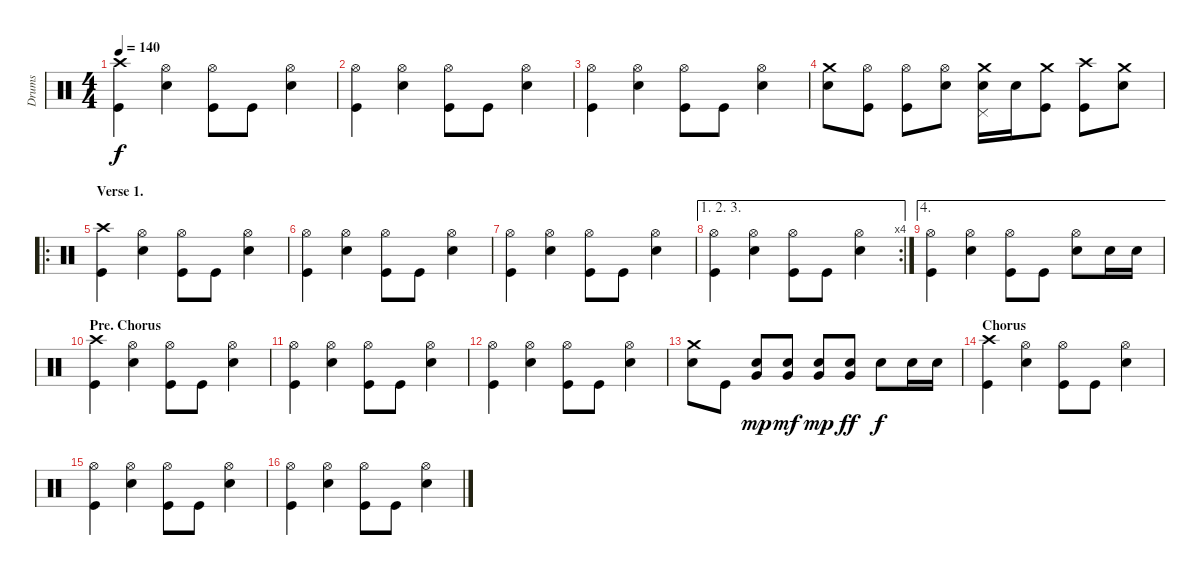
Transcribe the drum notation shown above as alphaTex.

\track ("Drums" "Drums") {instrument percussion}
\staff {score}
\articulation defaults
\ts (4 4)
\tempo 140
\clef neutral
\ks c
("Crash high (hit)" "Kick (hit)").4{dy f} ("Hi-Hat (open)" "Electric Snare (hit)").4 ("Hi-Hat (open)" "Kick (hit)").8 "Kick (hit)".8 ("Hi-Hat (open)" "Electric Snare (hit)").4 |
("Hi-Hat (open)" "Kick (hit)").4 ("Hi-Hat (open)" "Electric Snare (hit)").4 ("Hi-Hat (open)" "Kick (hit)").8 "Kick (hit)".8 ("Hi-Hat (open)" "Electric Snare (hit)").4 |
("Hi-Hat (open)" "Kick (hit)").4 ("Hi-Hat (open)" "Electric Snare (hit)").4 ("Hi-Hat (open)" "Kick (hit)").8 "Kick (hit)".8 ("Hi-Hat (open)" "Electric Snare (hit)").4 |
("Crash medium (hit)" "Electric Snare (hit)").8 ("Hi-Hat (open)" "Kick (hit)").8 ("Hi-Hat (open)" "Kick (hit)").8 ("Hi-Hat (open)" "Electric Snare (hit)").8 ("Crash medium (hit)" "Pedal Hi-Hat (hit)" "Electric Snare (hit)").16 "Electric Snare (hit)".16 ("Crash medium (hit)" "Kick (hit)").8 ("Crash high (hit)" "Kick (hit)").8 ("Crash medium (hit)" "Electric Snare (hit)").8 |
\ro
\section ("" "Verse 1.")
("Crash high (hit)" "Kick (hit)").4 ("Hi-Hat (open)" "Electric Snare (hit)").4 ("Hi-Hat (open)" "Kick (hit)").8 "Kick (hit)".8 ("Hi-Hat (open)" "Electric Snare (hit)").4 |
("Hi-Hat (open)" "Kick (hit)").4 ("Hi-Hat (open)" "Electric Snare (hit)").4 ("Hi-Hat (open)" "Kick (hit)").8 "Kick (hit)".8 ("Hi-Hat (open)" "Electric Snare (hit)").4 |
("Hi-Hat (open)" "Kick (hit)").4 ("Hi-Hat (open)" "Electric Snare (hit)").4 ("Hi-Hat (open)" "Kick (hit)").8 "Kick (hit)".8 ("Hi-Hat (open)" "Electric Snare (hit)").4 |
\ae (1 2 3)
\rc 4
("Hi-Hat (open)" "Kick (hit)").4 ("Hi-Hat (open)" "Electric Snare (hit)").4 ("Hi-Hat (open)" "Kick (hit)").8 "Kick (hit)".8 ("Hi-Hat (open)" "Electric Snare (hit)").4 |
\ae 4
("Hi-Hat (open)" "Kick (hit)").4 ("Hi-Hat (open)" "Electric Snare (hit)").4 ("Hi-Hat (open)" "Kick (hit)").8 "Kick (hit)".8 ("Hi-Hat (open)" "Electric Snare (hit)").8 "Electric Snare (hit)".16 "Electric Snare (hit)".16 |
\section ("" "Pre. Chorus")
("Crash high (hit)" "Kick (hit)").4 ("Hi-Hat (open)" "Electric Snare (hit)").4 ("Hi-Hat (open)" "Kick (hit)").8 "Kick (hit)".8 ("Hi-Hat (open)" "Electric Snare (hit)").4 |
("Hi-Hat (open)" "Kick (hit)").4 ("Hi-Hat (open)" "Electric Snare (hit)").4 ("Hi-Hat (open)" "Kick (hit)").8 "Kick (hit)".8 ("Hi-Hat (open)" "Electric Snare (hit)").4 |
("Hi-Hat (open)" "Kick (hit)").4 ("Hi-Hat (open)" "Electric Snare (hit)").4 ("Hi-Hat (open)" "Kick (hit)").8 "Kick (hit)".8 ("Hi-Hat (open)" "Electric Snare (hit)").4 |
("Crash medium (hit)" "Electric Snare (hit)").8 "Kick (hit)".8 ("Snare (hit) 2" "Very Low Tom (hit)").8{dy mp} ("Snare (hit) 2" "Very Low Tom (hit)").8{dy mf} ("Snare (hit) 2" "Very Low Tom (hit)").8{dy mp} ("Snare (hit) 2" "Very Low Tom (hit)").8{dy ff} "Electric Snare (hit)".8{dy f} "Electric Snare (hit)".16 "Electric Snare (hit)".16 |
\section ("" "Chorus")
("Crash high (hit)" "Kick (hit)").4 ("Hi-Hat (open)" "Electric Snare (hit)").4 ("Hi-Hat (open)" "Kick (hit)").8 "Kick (hit)".8 ("Hi-Hat (open)" "Electric Snare (hit)").4 |
("Hi-Hat (open)" "Kick (hit)").4 ("Hi-Hat (open)" "Electric Snare (hit)").4 ("Hi-Hat (open)" "Kick (hit)").8 "Kick (hit)".8 ("Hi-Hat (open)" "Electric Snare (hit)").4 |
("Hi-Hat (open)" "Kick (hit)").4 ("Hi-Hat (open)" "Electric Snare (hit)").4 ("Hi-Hat (open)" "Kick (hit)").8 "Kick (hit)".8 ("Hi-Hat (open)" "Electric Snare (hit)").4
